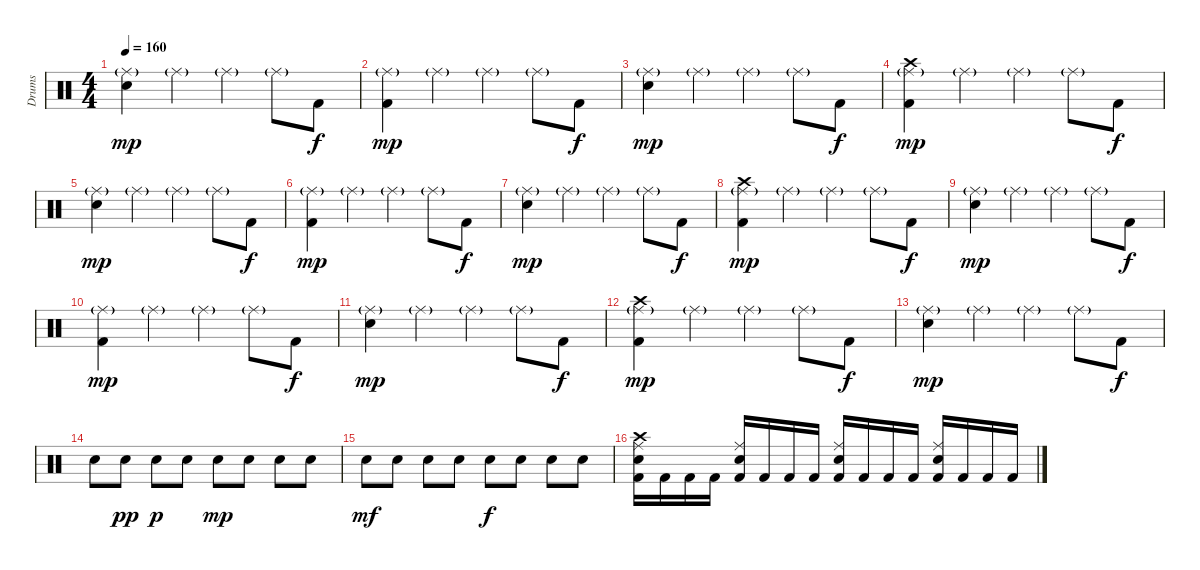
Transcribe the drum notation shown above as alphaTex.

\track ("Drums" "Drums") {instrument percussion}
\staff {score}
\articulation defaults
\ts (4 4)
\tempo 160
\clef neutral
\ks c
("Snare (hit) 2" "Ride (middle)"{g}).4{dy mp} "Ride (middle)"{g}.4 "Ride (middle)"{g}.4 "Ride (middle)"{g}.8 "Kick (hit) 2".8{dy f} |
("Kick (hit) 2" "Ride (middle)"{g}).4{dy mp} "Ride (middle)"{g}.4 "Ride (middle)"{g}.4 "Ride (middle)"{g}.8 "Kick (hit) 2".8{dy f} |
("Snare (hit) 2" "Ride (middle)"{g}).4{dy mp} "Ride (middle)"{g}.4 "Ride (middle)"{g}.4 "Ride (middle)"{g}.8 "Kick (hit) 2".8{dy f} |
("Kick (hit) 2" "Ride (middle)"{g} "Crash high (hit)").4{dy mp} "Ride (middle)"{g}.4 "Ride (middle)"{g}.4 "Ride (middle)"{g}.8 "Kick (hit) 2".8{dy f} |
("Snare (hit) 2" "Ride (middle)"{g}).4{dy mp} "Ride (middle)"{g}.4 "Ride (middle)"{g}.4 "Ride (middle)"{g}.8 "Kick (hit) 2".8{dy f} |
("Kick (hit) 2" "Ride (middle)"{g}).4{dy mp} "Ride (middle)"{g}.4 "Ride (middle)"{g}.4 "Ride (middle)"{g}.8 "Kick (hit) 2".8{dy f} |
("Snare (hit) 2" "Ride (middle)"{g}).4{dy mp} "Ride (middle)"{g}.4 "Ride (middle)"{g}.4 "Ride (middle)"{g}.8 "Kick (hit) 2".8{dy f} |
("Kick (hit) 2" "Ride (middle)"{g} "Crash high (hit)").4{dy mp} "Ride (middle)"{g}.4 "Ride (middle)"{g}.4 "Ride (middle)"{g}.8 "Kick (hit) 2".8{dy f} |
("Snare (hit) 2" "Ride (middle)"{g}).4{dy mp} "Ride (middle)"{g}.4 "Ride (middle)"{g}.4 "Ride (middle)"{g}.8 "Kick (hit) 2".8{dy f} |
("Kick (hit) 2" "Ride (middle)"{g}).4{dy mp} "Ride (middle)"{g}.4 "Ride (middle)"{g}.4 "Ride (middle)"{g}.8 "Kick (hit) 2".8{dy f} |
("Snare (hit) 2" "Ride (middle)"{g}).4{dy mp} "Ride (middle)"{g}.4 "Ride (middle)"{g}.4 "Ride (middle)"{g}.8 "Kick (hit) 2".8{dy f} |
("Kick (hit) 2" "Ride (middle)"{g} "Crash high (hit)").4{dy mp} "Ride (middle)"{g}.4 "Ride (middle)"{g}.4 "Ride (middle)"{g}.8 "Kick (hit) 2".8{dy f} |
("Snare (hit) 2" "Ride (middle)"{g}).4{dy mp} "Ride (middle)"{g}.4 "Ride (middle)"{g}.4 "Ride (middle)"{g}.8 "Kick (hit) 2".8{dy f} |
"Snare (hit) 2".8 "Snare (hit) 2".8{dy pp} "Snare (hit) 2".8{dy p} "Snare (hit) 2".8 "Snare (hit) 2".8{dy mp} "Snare (hit) 2".8 "Snare (hit) 2".8 "Snare (hit) 2".8 |
"Snare (hit) 2".8{dy mf} "Snare (hit) 2".8 "Snare (hit) 2".8 "Snare (hit) 2".8 "Snare (hit) 2".8{dy f} "Snare (hit) 2".8 "Snare (hit) 2".8 "Snare (hit) 2".8 |
("Snare (hit) 2" "Kick (hit) 2" "Ride (middle)" "Crash high (hit)").16 "Kick (hit) 2".16 "Kick (hit) 2".16 "Kick (hit) 2".16 ("Snare (hit) 2" "Kick (hit) 2" "Ride (middle)").16 "Kick (hit) 2".16 "Kick (hit) 2".16 "Kick (hit) 2".16 ("Snare (hit) 2" "Kick (hit) 2" "Ride (middle)").16 "Kick (hit) 2".16 "Kick (hit) 2".16 "Kick (hit) 2".16 ("Snare (hit) 2" "Kick (hit) 2" "Ride (middle)").16 "Kick (hit) 2".16 "Kick (hit) 2".16 "Kick (hit) 2".16
